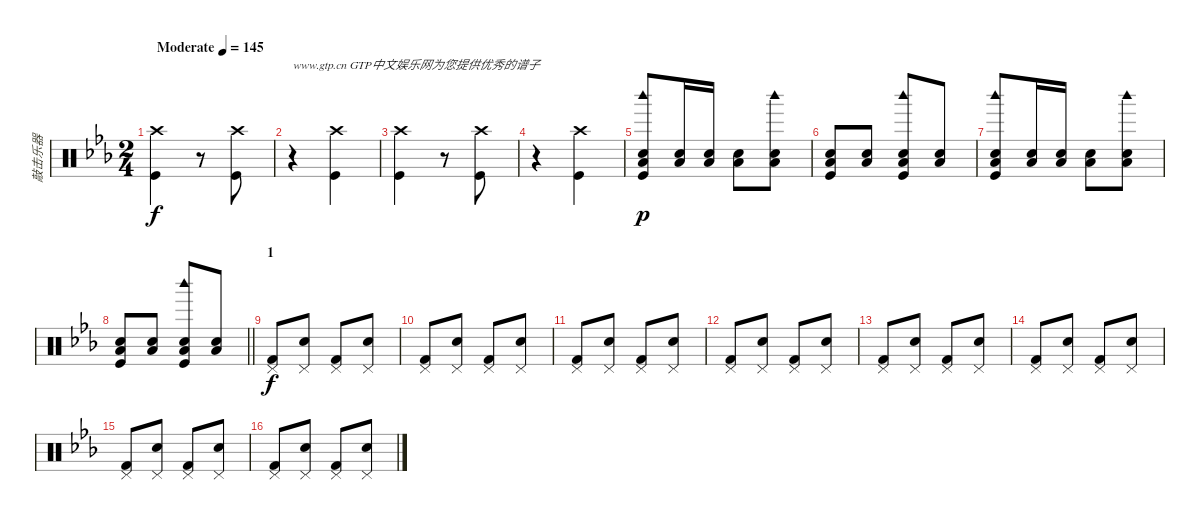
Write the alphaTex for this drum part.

\track ("敲击乐器" "敲击乐器") {instrument percussion}
\staff {score}
\articulation defaults
\ts (2 4)
\tempo (145 "Moderate")
\clef neutral
\ks eb
("Crash high (hit)" "Kick (hit)").4{dy f} r.8 ("Crash high (hit)" "Kick (hit)").8 |
r.4{txt "www.gtp.cn GTP中文娱乐网为您提供优秀的谱子"} ("Crash high (hit)" "Kick (hit)").4 |
("Crash high (hit)" "Kick (hit)").4 r.8 ("Crash high (hit)" "Kick (hit)").8 |
r.4 ("Crash high (hit)" "Kick (hit)").4 |
("Woodblock high (hit)" "Low Tom (hit)" "Snare (hit) 2" "Kick (hit)").8{dy p volume 10} ("Low Tom (hit)" "Snare (hit) 2").16 ("Low Tom (hit)" "Snare (hit) 2").16 ("Low Tom (hit)" "Snare (hit) 2").8 ("Woodblock high (hit)" "Low Tom (hit)" "Snare (hit) 2").8 |
("Low Tom (hit)" "Snare (hit) 2" "Kick (hit)").8 ("Low Tom (hit)" "Electric Snare (hit)").8 ("Woodblock high (hit)" "Low Tom (hit)" "Snare (hit) 2" "Kick (hit)").8 ("Low Tom (hit)" "Electric Snare (hit)").8 |
("Woodblock high (hit)" "Low Tom (hit)" "Snare (hit) 2" "Kick (hit)").8 ("Low Tom (hit)" "Snare (hit) 2").16 ("Low Tom (hit)" "Snare (hit) 2").16 ("Low Tom (hit)" "Snare (hit) 2").8 ("Woodblock high (hit)" "Low Tom (hit)" "Snare (hit) 2").8 |
\barLineRight lightlight
("Low Tom (hit)" "Snare (hit) 2" "Kick (hit)").8 ("Low Tom (hit)" "Electric Snare (hit)").8 ("Woodblock high (hit)" "Low Tom (hit)" "Snare (hit) 2" "Kick (hit)").8 ("Low Tom (hit)" "Electric Snare (hit)").8 |
\section ("" "1")
("Pedal Hi-Hat (hit)" "Kick (hit) 2").8{dy f volume 4} ("Pedal Hi-Hat (hit)" "Snare (hit) 2").8 ("Pedal Hi-Hat (hit)" "Kick (hit) 2").8 ("Pedal Hi-Hat (hit)" "Snare (hit) 2").8 |
("Pedal Hi-Hat (hit)" "Kick (hit) 2").8 ("Pedal Hi-Hat (hit)" "Snare (hit) 2").8 ("Pedal Hi-Hat (hit)" "Kick (hit) 2").8 ("Pedal Hi-Hat (hit)" "Snare (hit) 2").8 |
("Pedal Hi-Hat (hit)" "Kick (hit) 2").8 ("Pedal Hi-Hat (hit)" "Snare (hit) 2").8 ("Pedal Hi-Hat (hit)" "Kick (hit) 2").8 ("Pedal Hi-Hat (hit)" "Snare (hit) 2").8 |
("Pedal Hi-Hat (hit)" "Kick (hit) 2").8 ("Pedal Hi-Hat (hit)" "Snare (hit) 2").8 ("Pedal Hi-Hat (hit)" "Kick (hit) 2").8 ("Pedal Hi-Hat (hit)" "Snare (hit) 2").8 |
("Pedal Hi-Hat (hit)" "Kick (hit) 2").8 ("Pedal Hi-Hat (hit)" "Snare (hit) 2").8 ("Pedal Hi-Hat (hit)" "Kick (hit) 2").8 ("Pedal Hi-Hat (hit)" "Snare (hit) 2").8 |
("Pedal Hi-Hat (hit)" "Kick (hit) 2").8 ("Pedal Hi-Hat (hit)" "Snare (hit) 2").8 ("Pedal Hi-Hat (hit)" "Kick (hit) 2").8 ("Pedal Hi-Hat (hit)" "Snare (hit) 2").8 |
("Pedal Hi-Hat (hit)" "Kick (hit) 2").8 ("Pedal Hi-Hat (hit)" "Snare (hit) 2").8 ("Pedal Hi-Hat (hit)" "Kick (hit) 2").8 ("Pedal Hi-Hat (hit)" "Snare (hit) 2").8 |
("Pedal Hi-Hat (hit)" "Kick (hit) 2").8 ("Pedal Hi-Hat (hit)" "Snare (hit) 2").8 ("Pedal Hi-Hat (hit)" "Kick (hit) 2").8 ("Pedal Hi-Hat (hit)" "Snare (hit) 2").8
